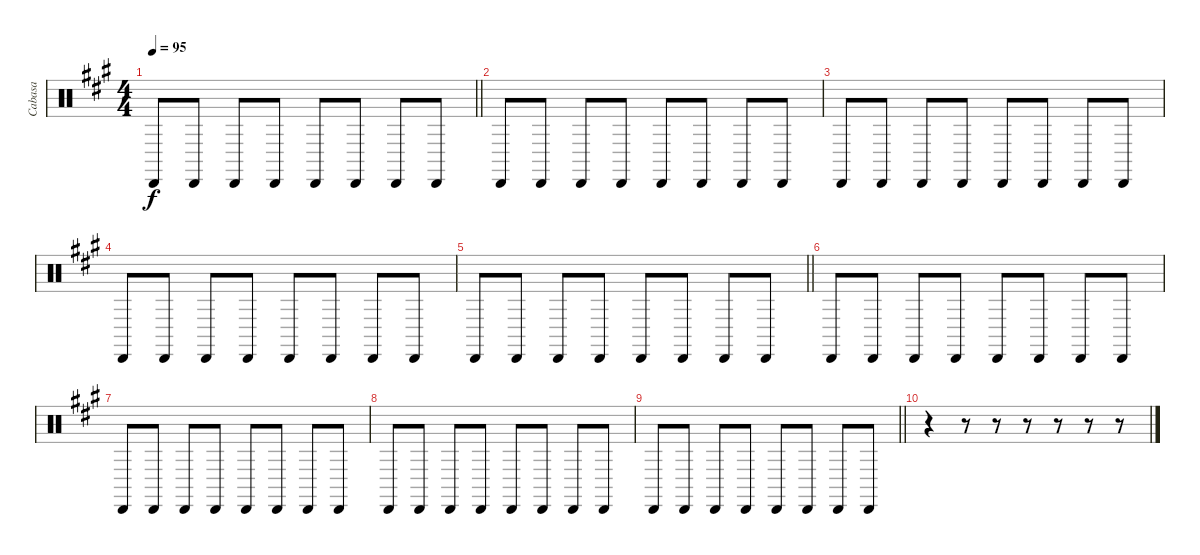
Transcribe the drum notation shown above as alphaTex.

\track ("Cabasa" "Cabasa") {instrument percussion}
\staff {score}
\articulation defaults
\ts (4 4)
\tempo 95
\clef neutral
\barLineRight lightlight
\ks a "Cabasa (hit)".8{dy f} "Cabasa (hit)".8 "Cabasa (hit)".8 "Cabasa (hit)".8 "Cabasa (hit)".8 "Cabasa (hit)".8 "Cabasa (hit)".8 "Cabasa (hit)".8
|
"Cabasa (hit)".8 "Cabasa (hit)".8 "Cabasa (hit)".8 "Cabasa (hit)".8 "Cabasa (hit)".8 "Cabasa (hit)".8 "Cabasa (hit)".8 "Cabasa (hit)".8 |
"Cabasa (hit)".8 "Cabasa (hit)".8 "Cabasa (hit)".8 "Cabasa (hit)".8 "Cabasa (hit)".8 "Cabasa (hit)".8 "Cabasa (hit)".8 "Cabasa (hit)".8 |
"Cabasa (hit)".8 "Cabasa (hit)".8 "Cabasa (hit)".8 "Cabasa (hit)".8 "Cabasa (hit)".8 "Cabasa (hit)".8 "Cabasa (hit)".8 "Cabasa (hit)".8 |
\barLineRight lightlight "Cabasa (hit)".8 "Cabasa (hit)".8 "Cabasa (hit)".8 "Cabasa (hit)".8 "Cabasa (hit)".8 "Cabasa (hit)".8 "Cabasa (hit)".8 "Cabasa (hit)".8
|
"Cabasa (hit)".8 "Cabasa (hit)".8 "Cabasa (hit)".8 "Cabasa (hit)".8 "Cabasa (hit)".8 "Cabasa (hit)".8 "Cabasa (hit)".8 "Cabasa (hit)".8 |
"Cabasa (hit)".8 "Cabasa (hit)".8 "Cabasa (hit)".8 "Cabasa (hit)".8 "Cabasa (hit)".8 "Cabasa (hit)".8 "Cabasa (hit)".8 "Cabasa (hit)".8 |
"Cabasa (hit)".8 "Cabasa (hit)".8 "Cabasa (hit)".8 "Cabasa (hit)".8 "Cabasa (hit)".8 "Cabasa (hit)".8 "Cabasa (hit)".8 "Cabasa (hit)".8 |
\barLineRight lightlight "Cabasa (hit)".8 "Cabasa (hit)".8 "Cabasa (hit)".8 "Cabasa (hit)".8 "Cabasa (hit)".8 "Cabasa (hit)".8 "Cabasa (hit)".8 "Cabasa (hit)".8
|
r.4 r.8 r.8 r.8 r.8 r.8 r.8
